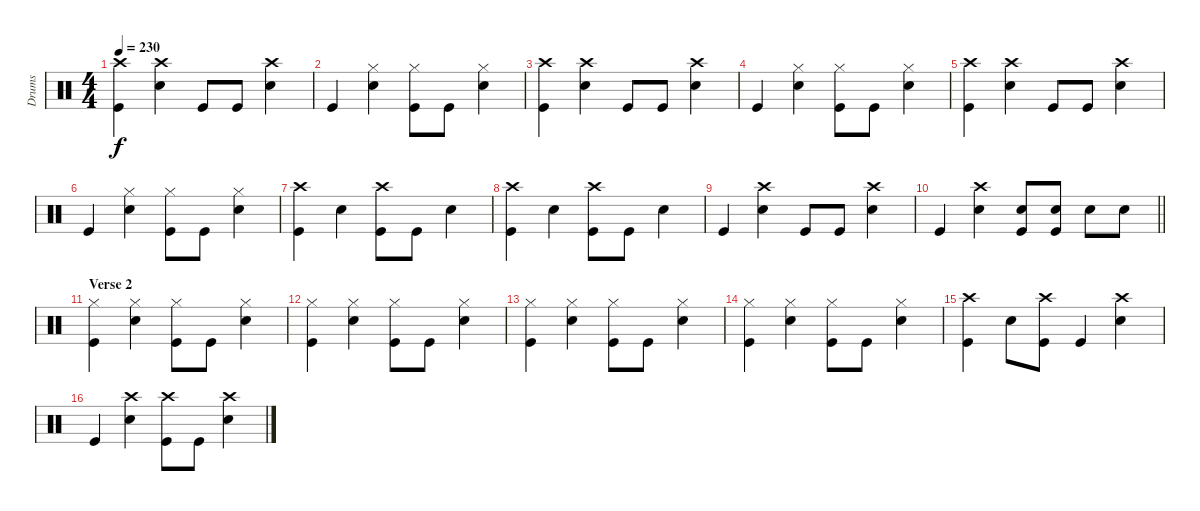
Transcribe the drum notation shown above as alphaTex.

\track ("Drums" "Drums") {instrument percussion}
\staff {score}
\articulation defaults
\ts (4 4)
\tempo 230
\clef neutral
\ks c
("Crash high (hit)" "Kick (hit)").4{dy f} ("Crash high (hit)" "Snare (hit) 2").4 "Kick (hit)".8 "Kick (hit)".8 ("Crash high (hit)" "Snare (hit) 2").4 |
"Kick (hit)".4 ("Hi-Hat (closed)" "Snare (hit) 2").4 ("Hi-Hat (closed)" "Kick (hit)").8 "Kick (hit)".8 ("Hi-Hat (closed)" "Snare (hit) 2").4 |
("Crash high (hit)" "Kick (hit)").4 ("Crash high (hit)" "Snare (hit) 2").4 "Kick (hit)".8 "Kick (hit)".8 ("Crash high (hit)" "Snare (hit) 2").4 |
"Kick (hit)".4 ("Hi-Hat (closed)" "Snare (hit) 2").4 ("Hi-Hat (closed)" "Kick (hit)").8 "Kick (hit)".8 ("Hi-Hat (closed)" "Snare (hit) 2").4 |
("Crash high (hit)" "Kick (hit)").4 ("Crash high (hit)" "Snare (hit) 2").4 "Kick (hit)".8 "Kick (hit)".8 ("Crash high (hit)" "Snare (hit) 2").4 |
"Kick (hit)".4 ("Hi-Hat (closed)" "Snare (hit) 2").4 ("Hi-Hat (closed)" "Kick (hit)").8 "Kick (hit)".8 ("Hi-Hat (closed)" "Snare (hit) 2").4 |
("Crash high (hit)" "Kick (hit)").4 "Snare (hit) 2".4 ("Crash high (hit)" "Kick (hit)").8 "Kick (hit)".8 "Snare (hit) 2".4 |
("Crash high (hit)" "Kick (hit)").4 "Snare (hit) 2".4 ("Crash high (hit)" "Kick (hit)").8 "Kick (hit)".8 "Snare (hit) 2".4 |
"Kick (hit)".4 ("Crash high (hit)" "Snare (hit) 2").4 "Kick (hit)".8 "Kick (hit)".8 ("Crash high (hit)" "Snare (hit) 2").4 |
\barLineRight lightlight "Kick (hit)".4
("Crash high (hit)" "Snare (hit) 2").4 ("Snare (hit) 2" "Kick (hit)").8 ("Snare (hit) 2" "Kick (hit)").8 "Snare (hit) 2".8 "Snare (hit) 2".8 |
\section ("" "Verse 2")
("Hi-Hat (closed)" "Kick (hit)").4 ("Hi-Hat (closed)" "Snare (hit) 2").4 ("Hi-Hat (closed)" "Kick (hit)").8 "Kick (hit)".8 ("Hi-Hat (closed)" "Snare (hit) 2").4 |
("Hi-Hat (closed)" "Kick (hit)").4 ("Hi-Hat (closed)" "Snare (hit) 2").4 ("Hi-Hat (closed)" "Kick (hit)").8 "Kick (hit)".8 ("Hi-Hat (closed)" "Snare (hit) 2").4 |
("Hi-Hat (closed)" "Kick (hit)").4 ("Hi-Hat (closed)" "Snare (hit) 2").4 ("Hi-Hat (closed)" "Kick (hit)").8 "Kick (hit)".8 ("Hi-Hat (closed)" "Snare (hit) 2").4 |
("Hi-Hat (closed)" "Kick (hit)").4 ("Hi-Hat (closed)" "Snare (hit) 2").4 ("Hi-Hat (closed)" "Kick (hit)").8 "Kick (hit)".8 ("Hi-Hat (closed)" "Snare (hit) 2").4 |
("Crash high (hit)" "Kick (hit)").4 "Snare (hit) 2".8 ("Crash high (hit)" "Kick (hit)").8 "Kick (hit)".4 ("Crash high (hit)" "Snare (hit) 2").4 |
"Kick (hit)".4 ("Crash high (hit)" "Snare (hit) 2").4 ("Crash high (hit)" "Kick (hit)").8 "Kick (hit)".8 ("Crash high (hit)" "Snare (hit) 2").4
